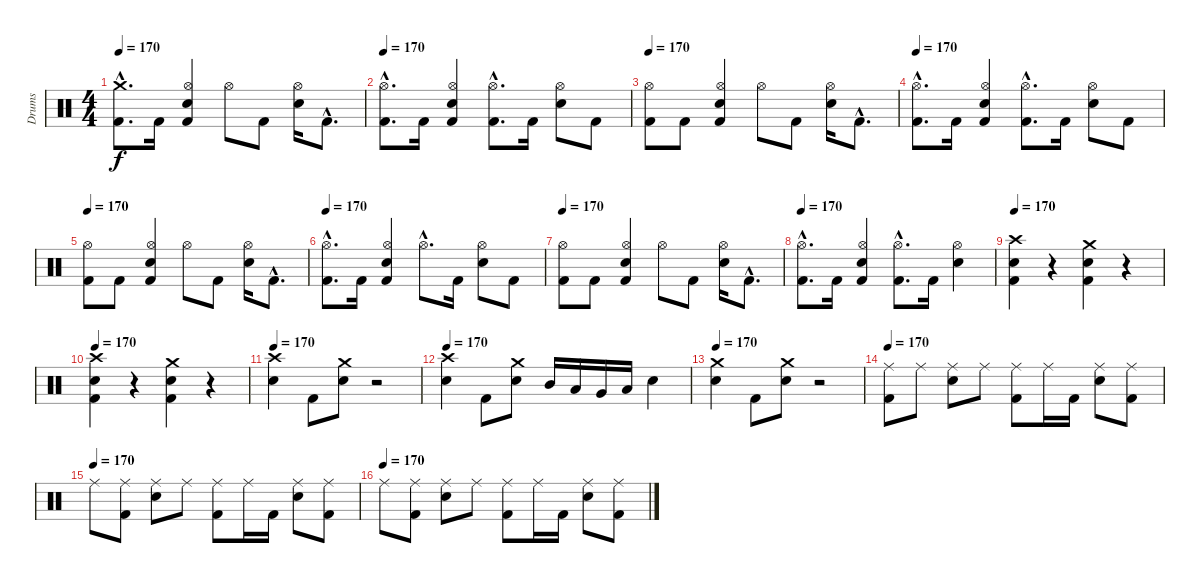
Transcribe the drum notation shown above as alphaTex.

\track ("Drums" "Drums") {instrument percussion}
\staff {score}
\articulation defaults
\ts (4 4)
\tempo 170
\clef neutral
\ks c
("Crash medium (hit)"{hac} "Kick (hit) 2"{hac}).8{d dy f} "Kick (hit) 2".16 ("Hi-Hat (open)" "Electric Snare (hit)" "Kick (hit) 2").4 "Hi-Hat (open)".8 "Kick (hit) 2".8 ("Electric Snare (hit)" "Hi-Hat (open)").16 "Kick (hit) 2"{hac}.8{d} |
\tempo 170
("Hi-Hat (open)"{hac} "Kick (hit) 2"{hac}).8{d} "Kick (hit) 2".16 ("Hi-Hat (open)" "Electric Snare (hit)" "Kick (hit) 2").4 ("Hi-Hat (open)"{hac} "Kick (hit) 2"{hac}).8{d} "Kick (hit) 2".16 ("Hi-Hat (open)" "Electric Snare (hit)").8 "Kick (hit) 2".8 |
\tempo 170
("Hi-Hat (open)" "Kick (hit) 2").8 "Kick (hit) 2".8 ("Hi-Hat (open)" "Electric Snare (hit)" "Kick (hit) 2").4 "Hi-Hat (open)".8 "Kick (hit) 2".8 ("Electric Snare (hit)" "Hi-Hat (open)").16 "Kick (hit) 2"{hac}.8{d} |
\tempo 170
("Hi-Hat (open)"{hac} "Kick (hit) 2"{hac}).8{d} "Kick (hit) 2".16 ("Hi-Hat (open)" "Electric Snare (hit)" "Kick (hit) 2").4 ("Kick (hit) 2"{hac} "Hi-Hat (open)"{hac}).8{d} "Kick (hit) 2".16 ("Hi-Hat (open)" "Electric Snare (hit)").8 "Kick (hit) 2".8 |
\tempo 170
("Hi-Hat (open)" "Kick (hit) 2").8 "Kick (hit) 2".8 ("Hi-Hat (open)" "Electric Snare (hit)" "Kick (hit) 2").4 "Hi-Hat (open)".8 "Kick (hit) 2".8 ("Electric Snare (hit)" "Hi-Hat (open)").16 "Kick (hit) 2"{hac}.8{d} |
\tempo 170
("Hi-Hat (open)"{hac} "Kick (hit) 2"{hac}).8{d} "Kick (hit) 2".16 ("Hi-Hat (open)" "Electric Snare (hit)" "Kick (hit) 2").4 "Hi-Hat (open)"{hac}.8{d} "Kick (hit) 2".16 ("Hi-Hat (open)" "Electric Snare (hit)").8 "Kick (hit) 2".8 |
\tempo 170
("Hi-Hat (open)" "Kick (hit) 2").8 "Kick (hit) 2".8 ("Hi-Hat (open)" "Electric Snare (hit)" "Kick (hit) 2").4 "Hi-Hat (open)".8 "Kick (hit) 2".8 ("Electric Snare (hit)" "Hi-Hat (open)").16 "Kick (hit) 2"{hac}.8{d} |
\tempo 170
("Hi-Hat (open)"{hac} "Kick (hit) 2"{hac}).8{d} "Kick (hit) 2".16 ("Hi-Hat (open)" "Electric Snare (hit)" "Kick (hit) 2").4 ("Kick (hit) 2"{hac} "Hi-Hat (open)"{hac}).8{d} "Kick (hit) 2".16 ("Hi-Hat (open)" "Electric Snare (hit)").4 |
\tempo 170
("Electric Snare (hit)" "Kick (hit) 2" "Crash high (hit)").4 r.4 ("Electric Snare (hit)" "Kick (hit) 2" "Crash medium (hit)").4 r.4 |
\tempo 170
("Electric Snare (hit)" "Kick (hit) 2" "Crash high (hit)").4 r.4 ("Electric Snare (hit)" "Kick (hit) 2" "Crash medium (hit)").4 r.4 |
\tempo 170
("Crash high (hit)" "Electric Snare (hit)").4 "Kick (hit) 2".8 ("Crash medium (hit)" "Electric Snare (hit)").8 r.2 |
\tempo 170
("Crash high (hit)" "Electric Snare (hit)").4 "Kick (hit) 2".8 ("Crash medium (hit)" "Electric Snare (hit)").8 "Mid Tom (hit)".16 "Low Tom (hit)".16 "Very Low Tom (hit)".16 "Low Floor Tom (hit)".16 "Electric Snare (hit)".4 |
\tempo 170
("Crash medium (hit)" "Electric Snare (hit)").4 "Kick (hit) 2".8 ("Crash medium (hit)" "Electric Snare (hit)").8 r.2 |
\tempo 170
("Kick (hit) 2" "Ride (middle)").8 "Ride (middle)".8 ("Electric Snare (hit)" "Ride (middle)").8 "Ride (middle)".8 ("Kick (hit) 2" "Ride (middle)").8 "Ride (middle)".16 "Kick (hit) 2".16 ("Electric Snare (hit)" "Ride (middle)").8 ("Kick (hit) 2" "Ride (middle)").8 |
\tempo (170)
"Ride (middle)".8 ("Kick (hit) 2" "Ride (middle)").8 ("Ride (middle)" "Electric Snare (hit)").8 "Ride (middle)".8 ("Kick (hit) 2" "Ride (middle)").8 "Ride (middle)".16 "Kick (hit) 2".16 ("Ride (middle)" "Electric Snare (hit)").8 ("Ride (middle)" "Kick (hit) 2").8 |
\tempo (170)
"Ride (middle)".8 ("Kick (hit) 2" "Ride (middle)").8 ("Electric Snare (hit)" "Ride (middle)").8 "Ride (middle)".8 ("Kick (hit) 2" "Ride (middle)").8 "Ride (middle)".16 "Kick (hit) 2".16 ("Electric Snare (hit)" "Ride (middle)").8 ("Kick (hit) 2" "Ride (middle)").8
